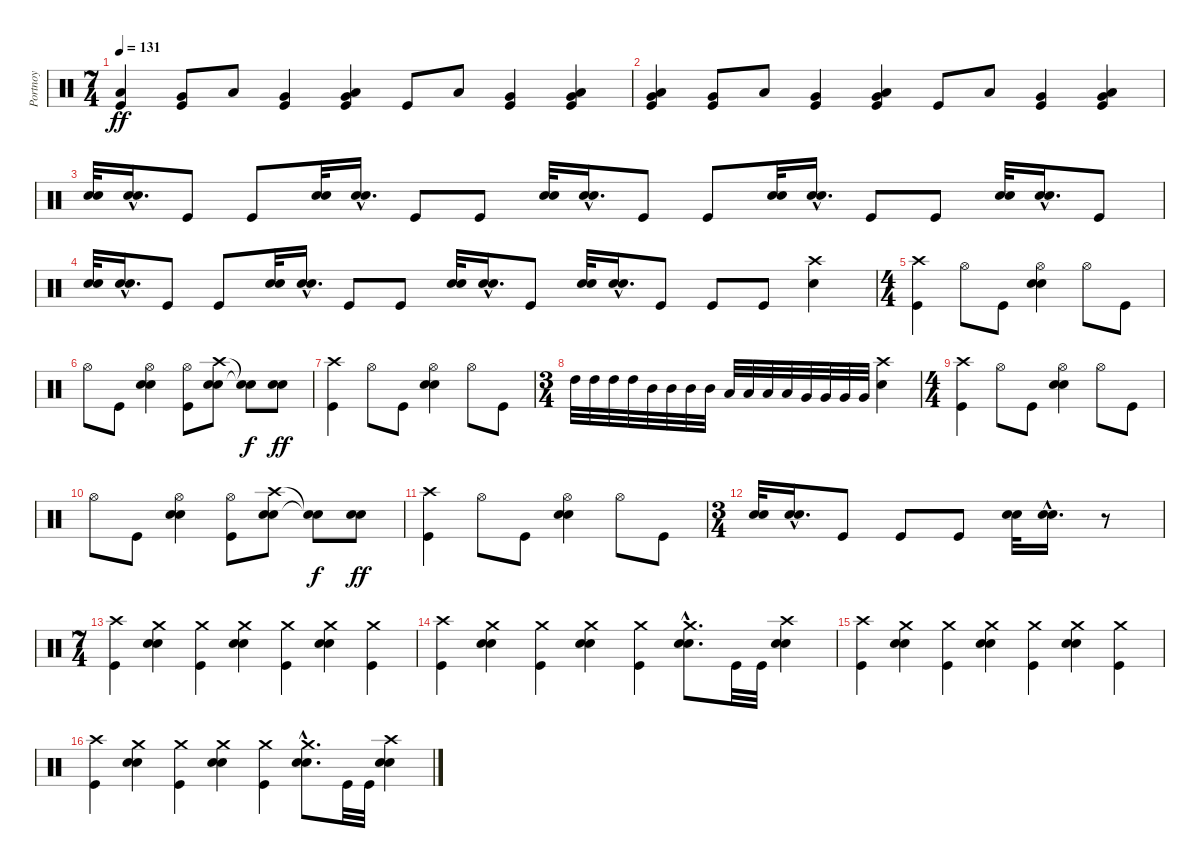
\track ("Portnoy" "Portnoy") {instrument percussion}
\staff {score}
\articulation defaults
\ts (7 4)
\tempo 131
\clef neutral
\ks c
("Low Floor Tom (hit)" "Kick (hit)").4{dy ff} ("Very Low Tom (hit)" "Kick (hit)").8 "Low Floor Tom (hit)".8 ("Very Low Tom (hit)" "Kick (hit)").4 ("Very Low Tom (hit)" "Low Floor Tom (hit)" "Kick (hit)").4 "Kick (hit)".8 "Low Floor Tom (hit)".8 ("Very Low Tom (hit)" "Kick (hit)").4 ("Low Floor Tom (hit)" "Very Low Tom (hit)" "Kick (hit)").4 |
("Low Floor Tom (hit)" "Very Low Tom (hit)" "Kick (hit)").4 ("Very Low Tom (hit)" "Kick (hit)").8 "Low Floor Tom (hit)".8 ("Very Low Tom (hit)" "Kick (hit)").4 ("Very Low Tom (hit)" "Low Floor Tom (hit)" "Kick (hit)").4 "Kick (hit)".8 "Low Floor Tom (hit)".8 ("Very Low Tom (hit)" "Kick (hit)").4 ("Very Low Tom (hit)" "Low Floor Tom (hit)" "Kick (hit)").4 |
("Snare (hit) 2" "Electric Snare (hit)").32 ("Snare (hit) 2"{hac} "Electric Snare (hit)"{hac}).16{d} "Kick (hit)".8 "Kick (hit)".8 ("Snare (hit) 2" "Electric Snare (hit)").32 ("Snare (hit) 2"{hac} "Electric Snare (hit)"{hac}).16{d} "Kick (hit)".8 "Kick (hit)".8 ("Snare (hit) 2" "Electric Snare (hit)").32 ("Snare (hit) 2"{hac} "Electric Snare (hit)"{hac}).16{d} "Kick (hit)".8 "Kick (hit)".8 ("Snare (hit) 2" "Electric Snare (hit)").32 ("Snare (hit) 2"{hac} "Electric Snare (hit)"{hac}).16{d} "Kick (hit)".8 "Kick (hit)".8 ("Snare (hit) 2" "Electric Snare (hit)").32 ("Snare (hit) 2"{hac} "Electric Snare (hit)"{hac}).16{d} "Kick (hit)".8 |
("Snare (hit) 2" "Electric Snare (hit)").32 ("Snare (hit) 2"{hac} "Electric Snare (hit)"{hac}).16{d} "Kick (hit)".8 "Kick (hit)".8 ("Snare (hit) 2" "Electric Snare (hit)").32 ("Snare (hit) 2"{hac} "Electric Snare (hit)"{hac}).16{d} "Kick (hit)".8 "Kick (hit)".8 ("Snare (hit) 2" "Electric Snare (hit)").32 ("Snare (hit) 2"{hac} "Electric Snare (hit)"{hac}).16{d} "Kick (hit)".8 ("Snare (hit) 2" "Electric Snare (hit)").32 ("Snare (hit) 2"{hac} "Electric Snare (hit)"{hac}).16{d} "Kick (hit)".8 "Kick (hit)".8 "Kick (hit)".8 ("Crash high (hit)" "Snare (hit) 2").4 |
\ts (4 4)
("Crash high (hit)" "Kick (hit)").4 "Hi-Hat (open)".8 "Kick (hit)".8 ("Hi-Hat (open)" "Snare (hit) 2" "Electric Snare (hit)").4 "Hi-Hat (open)".8 "Kick (hit)".8 |
"Hi-Hat (open)".8 "Kick (hit)".8 ("Hi-Hat (open)" "Electric Snare (hit)" "Snare (hit) 2").4 ("Hi-Hat (open)" "Kick (hit)").8 ("Crash high (hit)" "Snare (hit) 2" "Electric Snare (hit)").8 ("Snare (hit)"{t} "Snare (hit)"{t}).8{dy f} ("Snare (hit) 2" "Electric Snare (hit)").8{dy ff} |
("Crash high (hit)" "Kick (hit)").4 "Hi-Hat (open)".8 "Kick (hit)".8 ("Hi-Hat (open)" "Snare (hit) 2" "Electric Snare (hit)").4 "Hi-Hat (open)".8 "Kick (hit)".8 |
\ts (3 4)
"High Tom (hit)".32 "High Tom (hit)".32 "High Tom (hit)".32 "High Tom (hit)".32 "Mid Tom (hit)".32 "Mid Tom (hit)".32 "Mid Tom (hit)".32 "Mid Tom (hit)".32 "Low Tom (hit)".32 "Low Tom (hit)".32 "Low Tom (hit)".32 "Low Tom (hit)".32 "Very Low Tom (hit)".32 "Very Low Tom (hit)".32 "Very Low Tom (hit)".32 "Very Low Tom (hit)".32 ("Crash high (hit)" "Snare (hit) 2").4 |
\ts (4 4)
("Crash high (hit)" "Kick (hit)").4 "Hi-Hat (open)".8 "Kick (hit)".8 ("Hi-Hat (open)" "Snare (hit) 2" "Electric Snare (hit)").4 "Hi-Hat (open)".8 "Kick (hit)".8 |
"Hi-Hat (open)".8 "Kick (hit)".8 ("Hi-Hat (open)" "Electric Snare (hit)" "Snare (hit) 2").4 ("Hi-Hat (open)" "Kick (hit)").8 ("Crash high (hit)" "Snare (hit) 2" "Electric Snare (hit)").8 ("Snare (hit)"{t} "Snare (hit)"{t}).8{dy f} ("Snare (hit) 2" "Electric Snare (hit)").8{dy ff} |
("Crash high (hit)" "Kick (hit)").4 "Hi-Hat (open)".8 "Kick (hit)".8 ("Hi-Hat (open)" "Snare (hit) 2" "Electric Snare (hit)").4 "Hi-Hat (open)".8 "Kick (hit)".8 |
\ts (3 4)
("Snare (hit) 2" "Electric Snare (hit)").32 ("Snare (hit) 2"{hac} "Electric Snare (hit)"{hac}).16{d} "Kick (hit)".8 "Kick (hit)".8 "Kick (hit)".8 ("Snare (hit) 2" "Electric Snare (hit)").32 ("Snare (hit) 2"{hac} "Electric Snare (hit)"{hac}).16{d} r.8 |
\ts (7 4)
("Crash high (hit)" "Kick (hit)").4 ("Crash medium (hit)" "Snare (hit) 2" "Electric Snare (hit)").4 ("Crash medium (hit)" "Kick (hit)").4 ("Crash medium (hit)" "Snare (hit) 2" "Electric Snare (hit)").4 ("Crash medium (hit)" "Kick (hit)").4 ("Crash medium (hit)" "Snare (hit) 2" "Electric Snare (hit)").4 ("Crash medium (hit)" "Kick (hit)").4 |
("Crash high (hit)" "Kick (hit)").4 ("Crash medium (hit)" "Snare (hit) 2" "Electric Snare (hit)").4 ("Crash medium (hit)" "Kick (hit)").4 ("Crash medium (hit)" "Snare (hit) 2" "Electric Snare (hit)").4 ("Crash medium (hit)" "Kick (hit)").4 ("Crash medium (hit)"{hac} "Snare (hit) 2"{hac} "Electric Snare (hit)"{hac}).8{d} "Kick (hit)".32 "Kick (hit)".32 ("Crash high (hit)" "Snare (hit) 2" "Electric Snare (hit)").4 |
("Crash high (hit)" "Kick (hit)").4 ("Crash medium (hit)" "Snare (hit) 2" "Electric Snare (hit)").4 ("Crash medium (hit)" "Kick (hit)").4 ("Crash medium (hit)" "Snare (hit) 2" "Electric Snare (hit)").4 ("Crash medium (hit)" "Kick (hit)").4 ("Crash medium (hit)" "Snare (hit) 2" "Electric Snare (hit)").4 ("Crash medium (hit)" "Kick (hit)").4 |
("Crash high (hit)" "Kick (hit)").4 ("Crash medium (hit)" "Snare (hit) 2" "Electric Snare (hit)").4 ("Crash medium (hit)" "Kick (hit)").4 ("Crash medium (hit)" "Snare (hit) 2" "Electric Snare (hit)").4 ("Crash medium (hit)" "Kick (hit)").4 ("Crash medium (hit)"{hac} "Snare (hit) 2"{hac} "Electric Snare (hit)"{hac}).8{d} "Kick (hit)".32 "Kick (hit)".32 ("Crash high (hit)" "Snare (hit) 2" "Electric Snare (hit)").4
